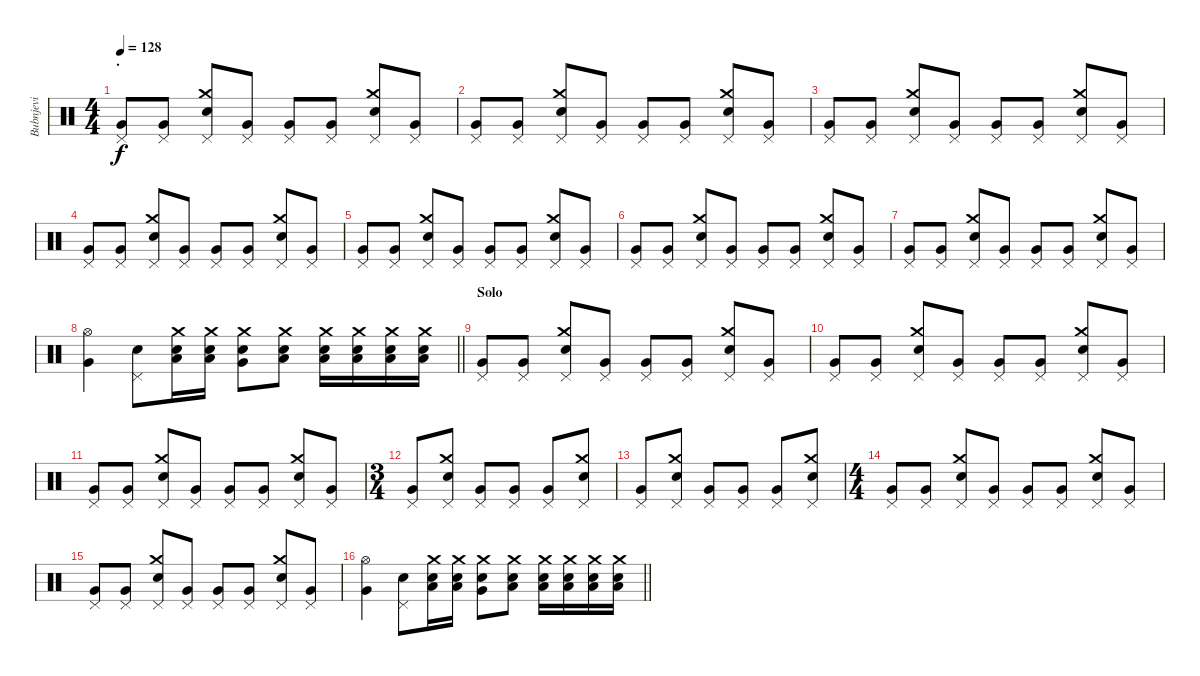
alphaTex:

\track ("Bubnjevi" "Bubnjevi") {instrument percussion}
\staff {score}
\articulation defaults
\ts (4 4)
\section ("" ".")
\tempo 128
\clef neutral
\ks c
("Pedal Hi-Hat (hit)" "Very Low Tom (hit)").8{dy f} ("Pedal Hi-Hat (hit)" "Very Low Tom (hit)").8 ("Crash medium (hit)" "Pedal Hi-Hat (hit)" "Electric Snare (hit)").8 ("Pedal Hi-Hat (hit)" "Very Low Tom (hit)").8 ("Pedal Hi-Hat (hit)" "Very Low Tom (hit)").8 ("Pedal Hi-Hat (hit)" "Very Low Tom (hit)").8 ("Crash medium (hit)" "Pedal Hi-Hat (hit)" "Electric Snare (hit)").8 ("Pedal Hi-Hat (hit)" "Very Low Tom (hit)").8 |
("Pedal Hi-Hat (hit)" "Very Low Tom (hit)").8 ("Pedal Hi-Hat (hit)" "Very Low Tom (hit)").8 ("Crash medium (hit)" "Pedal Hi-Hat (hit)" "Electric Snare (hit)").8 ("Pedal Hi-Hat (hit)" "Very Low Tom (hit)").8 ("Pedal Hi-Hat (hit)" "Very Low Tom (hit)").8 ("Pedal Hi-Hat (hit)" "Very Low Tom (hit)").8 ("Crash medium (hit)" "Pedal Hi-Hat (hit)" "Electric Snare (hit)").8 ("Pedal Hi-Hat (hit)" "Very Low Tom (hit)").8 |
("Pedal Hi-Hat (hit)" "Very Low Tom (hit)").8 ("Pedal Hi-Hat (hit)" "Very Low Tom (hit)").8 ("Crash medium (hit)" "Pedal Hi-Hat (hit)" "Electric Snare (hit)").8 ("Pedal Hi-Hat (hit)" "Very Low Tom (hit)").8 ("Pedal Hi-Hat (hit)" "Very Low Tom (hit)").8 ("Pedal Hi-Hat (hit)" "Very Low Tom (hit)").8 ("Crash medium (hit)" "Pedal Hi-Hat (hit)" "Electric Snare (hit)").8 ("Pedal Hi-Hat (hit)" "Very Low Tom (hit)").8 |
("Pedal Hi-Hat (hit)" "Very Low Tom (hit)").8 ("Pedal Hi-Hat (hit)" "Very Low Tom (hit)").8 ("Crash medium (hit)" "Pedal Hi-Hat (hit)" "Electric Snare (hit)").8 ("Pedal Hi-Hat (hit)" "Very Low Tom (hit)").8 ("Pedal Hi-Hat (hit)" "Very Low Tom (hit)").8 ("Pedal Hi-Hat (hit)" "Very Low Tom (hit)").8 ("Crash medium (hit)" "Pedal Hi-Hat (hit)" "Electric Snare (hit)").8 ("Pedal Hi-Hat (hit)" "Very Low Tom (hit)").8 |
("Pedal Hi-Hat (hit)" "Very Low Tom (hit)").8 ("Pedal Hi-Hat (hit)" "Very Low Tom (hit)").8 ("Crash medium (hit)" "Pedal Hi-Hat (hit)" "Electric Snare (hit)").8 ("Pedal Hi-Hat (hit)" "Very Low Tom (hit)").8 ("Pedal Hi-Hat (hit)" "Very Low Tom (hit)").8 ("Pedal Hi-Hat (hit)" "Very Low Tom (hit)").8 ("Crash medium (hit)" "Pedal Hi-Hat (hit)" "Electric Snare (hit)").8 ("Pedal Hi-Hat (hit)" "Very Low Tom (hit)").8 |
("Pedal Hi-Hat (hit)" "Very Low Tom (hit)").8 ("Pedal Hi-Hat (hit)" "Very Low Tom (hit)").8 ("Crash medium (hit)" "Pedal Hi-Hat (hit)" "Electric Snare (hit)").8 ("Pedal Hi-Hat (hit)" "Very Low Tom (hit)").8 ("Pedal Hi-Hat (hit)" "Very Low Tom (hit)").8 ("Pedal Hi-Hat (hit)" "Very Low Tom (hit)").8 ("Crash medium (hit)" "Pedal Hi-Hat (hit)" "Electric Snare (hit)").8 ("Pedal Hi-Hat (hit)" "Very Low Tom (hit)").8 |
("Pedal Hi-Hat (hit)" "Very Low Tom (hit)").8 ("Pedal Hi-Hat (hit)" "Very Low Tom (hit)").8 ("Crash medium (hit)" "Pedal Hi-Hat (hit)" "Electric Snare (hit)").8 ("Pedal Hi-Hat (hit)" "Very Low Tom (hit)").8 ("Pedal Hi-Hat (hit)" "Very Low Tom (hit)").8 ("Pedal Hi-Hat (hit)" "Very Low Tom (hit)").8 ("Crash medium (hit)" "Pedal Hi-Hat (hit)" "Electric Snare (hit)").8 ("Pedal Hi-Hat (hit)" "Very Low Tom (hit)").8 |
\barLineRight lightlight
("Hi-Hat (open)" "Very Low Tom (hit)").4 ("Pedal Hi-Hat (hit)" "Electric Snare (hit)").8 ("Crash medium (hit)" "Electric Snare (hit)" "Low Tom (hit)").16 ("Crash medium (hit)" "Electric Snare (hit)" "Low Tom (hit)").16 ("Crash medium (hit)" "Electric Snare (hit)" "Very Low Tom (hit)").8 ("Crash medium (hit)" "Electric Snare (hit)" "Low Tom (hit)").8 ("Crash medium (hit)" "Electric Snare (hit)" "Low Tom (hit)").16 ("Crash medium (hit)" "Electric Snare (hit)" "Low Tom (hit)").16 ("Crash medium (hit)" "Electric Snare (hit)" "Low Tom (hit)").16 ("Crash medium (hit)" "Electric Snare (hit)" "Low Tom (hit)").16 |
\section ("" "Solo")
("Pedal Hi-Hat (hit)" "Very Low Tom (hit)").8 ("Pedal Hi-Hat (hit)" "Very Low Tom (hit)").8 ("Crash medium (hit)" "Pedal Hi-Hat (hit)" "Electric Snare (hit)").8 ("Pedal Hi-Hat (hit)" "Very Low Tom (hit)").8 ("Pedal Hi-Hat (hit)" "Very Low Tom (hit)").8 ("Pedal Hi-Hat (hit)" "Very Low Tom (hit)").8 ("Crash medium (hit)" "Pedal Hi-Hat (hit)" "Electric Snare (hit)").8 ("Pedal Hi-Hat (hit)" "Very Low Tom (hit)").8 |
("Pedal Hi-Hat (hit)" "Very Low Tom (hit)").8 ("Pedal Hi-Hat (hit)" "Very Low Tom (hit)").8 ("Crash medium (hit)" "Pedal Hi-Hat (hit)" "Electric Snare (hit)").8 ("Pedal Hi-Hat (hit)" "Very Low Tom (hit)").8 ("Pedal Hi-Hat (hit)" "Very Low Tom (hit)").8 ("Pedal Hi-Hat (hit)" "Very Low Tom (hit)").8 ("Crash medium (hit)" "Pedal Hi-Hat (hit)" "Electric Snare (hit)").8 ("Pedal Hi-Hat (hit)" "Very Low Tom (hit)").8 |
("Pedal Hi-Hat (hit)" "Very Low Tom (hit)").8 ("Pedal Hi-Hat (hit)" "Very Low Tom (hit)").8 ("Crash medium (hit)" "Pedal Hi-Hat (hit)" "Electric Snare (hit)").8 ("Pedal Hi-Hat (hit)" "Very Low Tom (hit)").8 ("Pedal Hi-Hat (hit)" "Very Low Tom (hit)").8 ("Pedal Hi-Hat (hit)" "Very Low Tom (hit)").8 ("Crash medium (hit)" "Pedal Hi-Hat (hit)" "Electric Snare (hit)").8 ("Pedal Hi-Hat (hit)" "Very Low Tom (hit)").8 |
\ts (3 4)
("Pedal Hi-Hat (hit)" "Very Low Tom (hit)").8 ("Crash medium (hit)" "Pedal Hi-Hat (hit)" "Electric Snare (hit)").8 ("Pedal Hi-Hat (hit)" "Very Low Tom (hit)").8 ("Pedal Hi-Hat (hit)" "Very Low Tom (hit)").8 ("Pedal Hi-Hat (hit)" "Very Low Tom (hit)").8 ("Crash medium (hit)" "Pedal Hi-Hat (hit)" "Electric Snare (hit)").8 |
("Pedal Hi-Hat (hit)" "Very Low Tom (hit)").8 ("Crash medium (hit)" "Pedal Hi-Hat (hit)" "Electric Snare (hit)").8 ("Pedal Hi-Hat (hit)" "Very Low Tom (hit)").8 ("Pedal Hi-Hat (hit)" "Very Low Tom (hit)").8 ("Pedal Hi-Hat (hit)" "Very Low Tom (hit)").8 ("Crash medium (hit)" "Pedal Hi-Hat (hit)" "Electric Snare (hit)").8 |
\ts (4 4)
("Pedal Hi-Hat (hit)" "Very Low Tom (hit)").8 ("Pedal Hi-Hat (hit)" "Very Low Tom (hit)").8 ("Crash medium (hit)" "Pedal Hi-Hat (hit)" "Electric Snare (hit)").8 ("Pedal Hi-Hat (hit)" "Very Low Tom (hit)").8 ("Pedal Hi-Hat (hit)" "Very Low Tom (hit)").8 ("Pedal Hi-Hat (hit)" "Very Low Tom (hit)").8 ("Crash medium (hit)" "Pedal Hi-Hat (hit)" "Electric Snare (hit)").8 ("Pedal Hi-Hat (hit)" "Very Low Tom (hit)").8 |
("Pedal Hi-Hat (hit)" "Very Low Tom (hit)").8 ("Pedal Hi-Hat (hit)" "Very Low Tom (hit)").8 ("Crash medium (hit)" "Pedal Hi-Hat (hit)" "Electric Snare (hit)").8 ("Pedal Hi-Hat (hit)" "Very Low Tom (hit)").8 ("Pedal Hi-Hat (hit)" "Very Low Tom (hit)").8 ("Pedal Hi-Hat (hit)" "Very Low Tom (hit)").8 ("Crash medium (hit)" "Pedal Hi-Hat (hit)" "Electric Snare (hit)").8 ("Pedal Hi-Hat (hit)" "Very Low Tom (hit)").8 |
\barLineRight lightlight
("Hi-Hat (open)" "Very Low Tom (hit)").4 ("Pedal Hi-Hat (hit)" "Electric Snare (hit)").8 ("Crash medium (hit)" "Electric Snare (hit)" "Low Tom (hit)").16 ("Crash medium (hit)" "Electric Snare (hit)" "Low Tom (hit)").16 ("Crash medium (hit)" "Electric Snare (hit)" "Very Low Tom (hit)").8 ("Crash medium (hit)" "Electric Snare (hit)" "Low Tom (hit)").8 ("Crash medium (hit)" "Electric Snare (hit)" "Low Tom (hit)").16 ("Crash medium (hit)" "Electric Snare (hit)" "Low Tom (hit)").16 ("Crash medium (hit)" "Electric Snare (hit)" "Low Tom (hit)").16 ("Crash medium (hit)" "Electric Snare (hit)" "Low Tom (hit)").16
